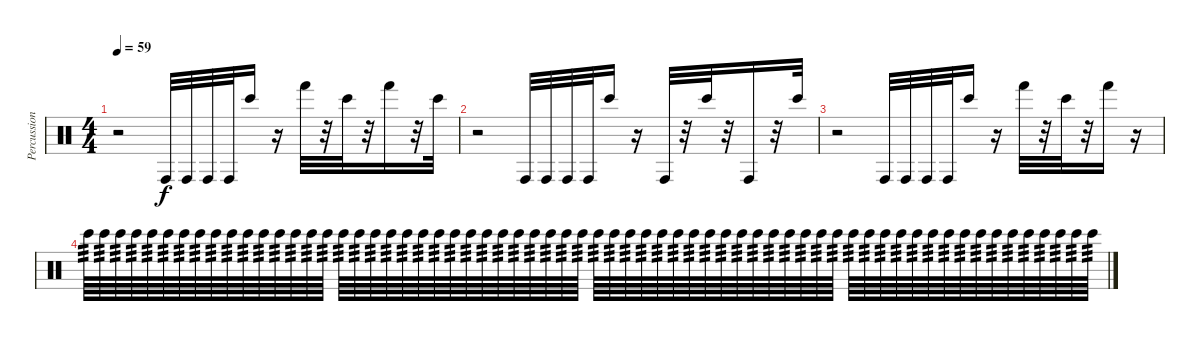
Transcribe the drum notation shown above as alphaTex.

\track ("Percussion 2" "Percussion") {instrument percussion}
\staff {score}
\articulation defaults
\ts (4 4)
\tempo 59
\clef neutral
\ks c
r.2{dy f} "Conga high (hit)".32 "Conga high (hit)".32 "Conga high (hit)".32 "Conga high (hit)".32 "Bongo High (hit)".16 r.16 "Hand (hit)".32 r.32 "Bongo High (hit)".32 r.32 "Hand (hit)".16 r.32 "Bongo High (hit)".32 |
r.2 "Conga high (hit)".32 "Conga high (hit)".32 "Conga high (hit)".32 "Conga high (hit)".32 "Bongo High (hit)".16 r.16 "Conga high (hit)".32 r.32 "Bongo High (hit)".32 r.32 "Conga high (hit)".16 r.32 "Bongo High (hit)".32 |
r.2 "Conga high (hit)".32 "Conga high (hit)".32 "Conga high (hit)".32 "Conga high (hit)".32 "Bongo High (hit)".16 r.16 "Hand (hit)".32 r.32 "Bongo High (hit)".32 r.32 "Hand (hit)".16 r.16 |
"Bongo High (hit)".64{tp 3 volume 1} "Bongo High (hit)".64{tp 3} "Bongo High (hit)".64{tp 3} "Bongo High (hit)".64{tp 3} "Bongo High (hit)".64{tp 3} "Bongo High (hit)".64{tp 3} "Bongo High (hit)".64{tp 3} "Bongo High (hit)".64{tp 3} "Bongo High (hit)".64{tp 3} "Bongo High (hit)".64{tp 3} "Bongo High (hit)".64{tp 3} "Bongo High (hit)".64{tp 3} "Bongo High (hit)".64{tp 3} "Bongo High (hit)".64{tp 3} "Bongo High (hit)".64{tp 3} "Bongo High (hit)".64{tp 3} "Bongo High (hit)".64{tp 3} "Bongo High (hit)".64{tp 3} "Bongo High (hit)".64{tp 3} "Bongo High (hit)".64{tp 3} "Bongo High (hit)".64{tp 3} "Bongo High (hit)".64{tp 3} "Bongo High (hit)".64{tp 3} "Bongo High (hit)".64{tp 3} "Bongo High (hit)".64{tp 3} "Bongo High (hit)".64{tp 3} "Bongo High (hit)".64{tp 3} "Bongo High (hit)".64{tp 3} "Bongo High (hit)".64{tp 3} "Bongo High (hit)".64{tp 3} "Bongo High (hit)".64{tp 3} "Bongo High (hit)".64{tp 3} "Bongo High (hit)".64{tp 3} "Bongo High (hit)".64{tp 3} "Bongo High (hit)".64{tp 3} "Bongo High (hit)".64{tp 3} "Bongo High (hit)".64{tp 3} "Bongo High (hit)".64{tp 3} "Bongo High (hit)".64{tp 3} "Bongo High (hit)".64{tp 3} "Bongo High (hit)".64{tp 3} "Bongo High (hit)".64{tp 3} "Bongo High (hit)".64{tp 3} "Bongo High (hit)".64{tp 3} "Bongo High (hit)".64{tp 3} "Bongo High (hit)".64{tp 3} "Bongo High (hit)".64{tp 3} "Bongo High (hit)".64{tp 3} "Bongo High (hit)".64{tp 3} "Bongo High (hit)".64{tp 3} "Bongo High (hit)".64{tp 3} "Bongo High (hit)".64{tp 3} "Bongo High (hit)".64{tp 3} "Bongo High (hit)".64{tp 3} "Bongo High (hit)".64{tp 3} "Bongo High (hit)".64{tp 3} "Bongo High (hit)".64{tp 3} "Bongo High (hit)".64{tp 3} "Bongo High (hit)".64{tp 3} "Bongo High (hit)".64{tp 3} "Bongo High (hit)".64{tp 3} "Bongo High (hit)".64{tp 3} "Bongo High (hit)".64{tp 3} "Bongo High (hit)".64{tp 3}
